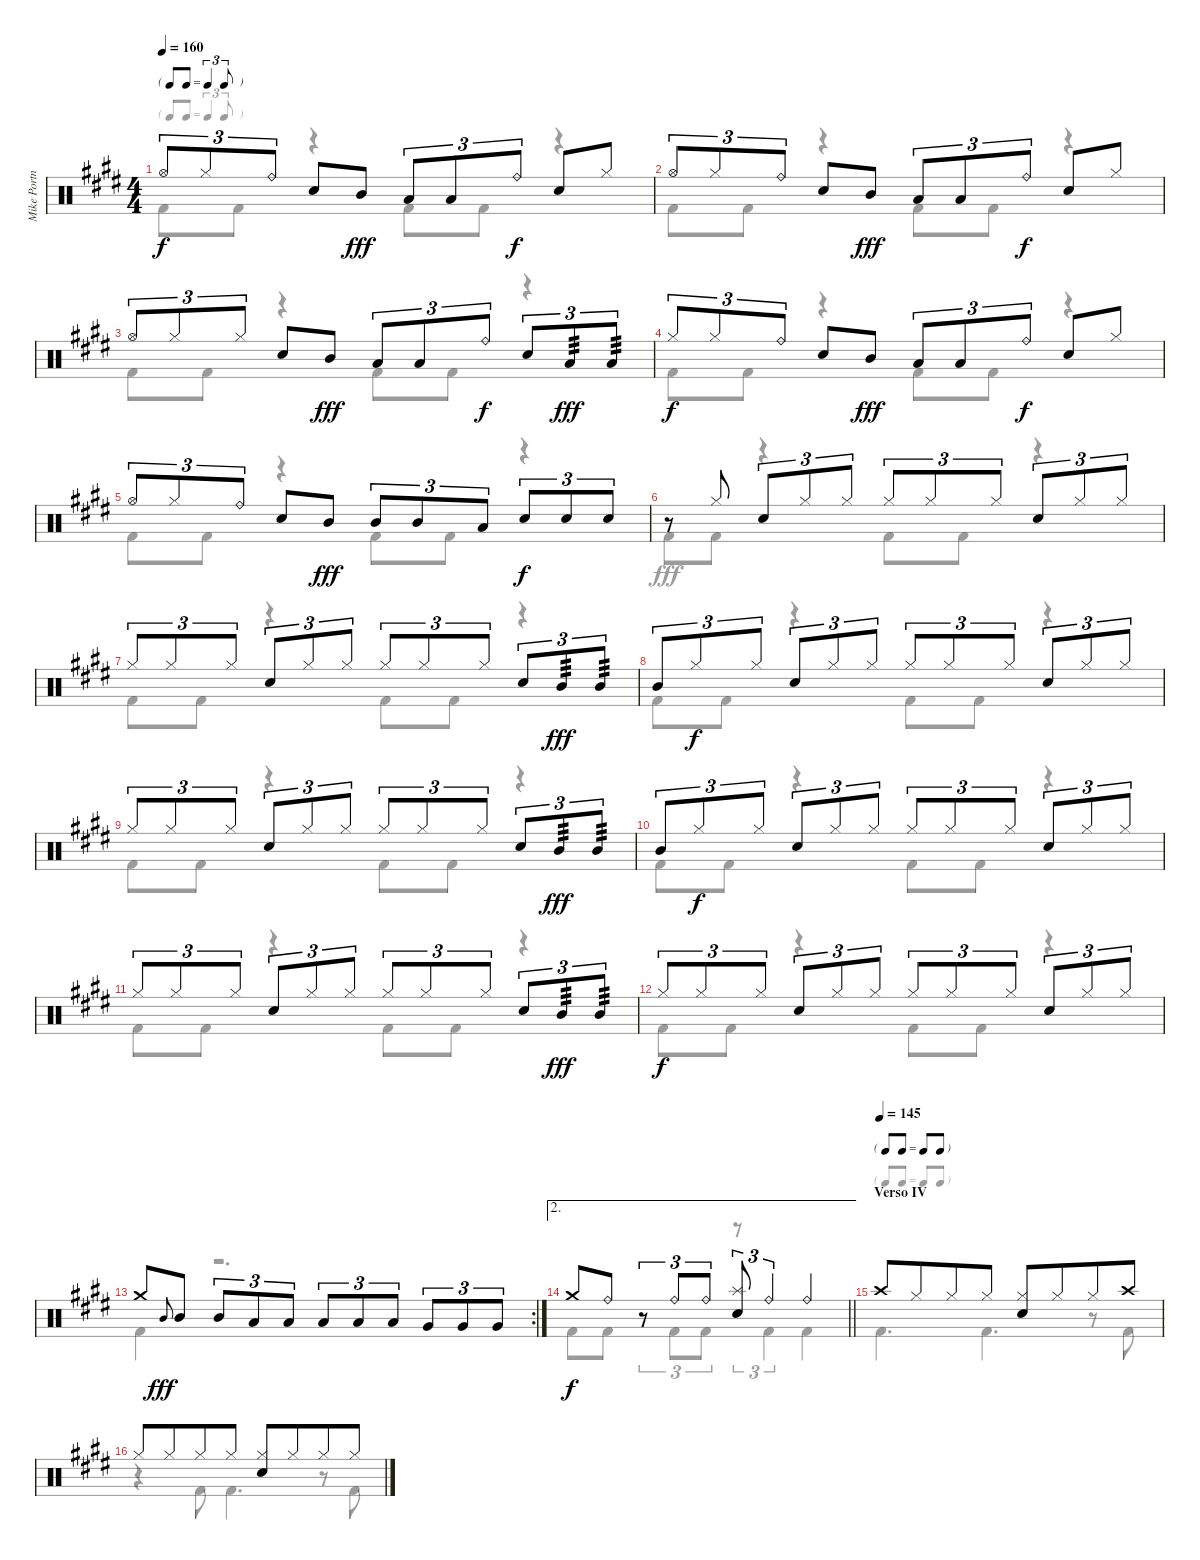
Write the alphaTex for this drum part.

\track ("Mike Portnoy" "Mike Portn") {instrument percussion}
\staff {score}
\articulation defaults
\voice
\ts (4 4)
\tf triplet8th
\tempo 160
\clef neutral
\ks e "Hi-Hat (open)".8{tu (3 2) dy f} "Hi-Hat (closed)".8{tu (3 2)} "Ride (bell)".8{tu (3 2)} "Snare (hit) 2".8 "Mid Tom (hit)".8{dy fff} "Low Tom (hit)".8{tu (3 2)} "Low Tom (hit)".8{tu (3 2)} "Ride (bell)".8{tu (3 2) dy f} "Snare (hit) 2".8 "Hi-Hat (closed)".8
|
"Hi-Hat (open)".8{tu (3 2)} "Hi-Hat (closed)".8{tu (3 2)} "Ride (bell)".8{tu (3 2)} "Snare (hit) 2".8 "Mid Tom (hit)".8{dy fff} "Low Tom (hit)".8{tu (3 2)} "Low Tom (hit)".8{tu (3 2)} "Ride (bell)".8{tu (3 2) dy f} "Snare (hit) 2".8 "Hi-Hat (closed)".8 |
"Hi-Hat (open)".8{tu (3 2)} "Hi-Hat (closed)".8{tu (3 2)} "Hi-Hat (closed)".8{tu (3 2)} "Snare (hit) 2".8 "Mid Tom (hit)".8{dy fff} "Low Tom (hit)".8{tu (3 2)} "Low Tom (hit)".8{tu (3 2)} "Ride (bell)".8{tu (3 2) dy f} "Snare (hit) 2".8{tu (3 2)} "Low Tom (hit)".8{tu (3 2) tp 3 dy fff} "Low Tom (hit)".8{tu (3 2) tp 3} |
"Hi-Hat (closed)".8{tu (3 2) dy f} "Hi-Hat (closed)".8{tu (3 2)} "Ride (bell)".8{tu (3 2)} "Snare (hit) 2".8 "Mid Tom (hit)".8{dy fff} "Low Tom (hit)".8{tu (3 2)} "Low Tom (hit)".8{tu (3 2)} "Ride (bell)".8{tu (3 2) dy f} "Snare (hit) 2".8 "Hi-Hat (closed)".8 |
"Hi-Hat (open)".8{tu (3 2)} "Hi-Hat (closed)".8{tu (3 2)} "Ride (bell)".8{tu (3 2)} "Snare (hit) 2".8 "Mid Tom (hit)".8{dy fff} "Mid Tom (hit)".8{tu (3 2)} "Mid Tom (hit)".8{tu (3 2)} "Low Tom (hit)".8{tu (3 2)} "Snare (hit) 2".8{tu (3 2) dy f} "Snare (hit) 2".8{tu (3 2)} "Snare (hit) 2".8{tu (3 2)} |
r.8 "Hi-Hat (closed)".8 "Snare (hit) 2".8{tu (3 2)} "Hi-Hat (closed)".8{tu (3 2)} "Hi-Hat (closed)".8{tu (3 2)} "Hi-Hat (closed)".8{tu (3 2)} "Hi-Hat (closed)".8{tu (3 2)} "Hi-Hat (closed)".8{tu (3 2)} "Snare (hit) 2".8{tu (3 2)} "Hi-Hat (closed)".8{tu (3 2)} "Hi-Hat (closed)".8{tu (3 2)} |
"Hi-Hat (closed)".8{tu (3 2)} "Hi-Hat (closed)".8{tu (3 2)} "Hi-Hat (closed)".8{tu (3 2)} "Snare (hit) 2".8{tu (3 2)} "Hi-Hat (closed)".8{tu (3 2)} "Hi-Hat (closed)".8{tu (3 2)} "Hi-Hat (closed)".8{tu (3 2)} "Hi-Hat (closed)".8{tu (3 2)} "Hi-Hat (closed)".8{tu (3 2)} "Snare (hit) 2".8{tu (3 2)} "Mid Tom (hit)".8{tu (3 2) tp 3 dy fff} "Mid Tom (hit)".8{tu (3 2) tp 3} |
"Mid Tom (hit)".8{tu (3 2)} "Hi-Hat (closed)".8{tu (3 2) dy f} "Hi-Hat (closed)".8{tu (3 2)} "Snare (hit) 2".8{tu (3 2)} "Hi-Hat (closed)".8{tu (3 2)} "Hi-Hat (closed)".8{tu (3 2)} "Hi-Hat (closed)".8{tu (3 2)} "Hi-Hat (closed)".8{tu (3 2)} "Hi-Hat (closed)".8{tu (3 2)} "Snare (hit) 2".8{tu (3 2)} "Hi-Hat (closed)".8{tu (3 2)} "Hi-Hat (closed)".8{tu (3 2)} |
"Hi-Hat (closed)".8{tu (3 2)} "Hi-Hat (closed)".8{tu (3 2)} "Hi-Hat (closed)".8{tu (3 2)} "Snare (hit) 2".8{tu (3 2)} "Hi-Hat (closed)".8{tu (3 2)} "Hi-Hat (closed)".8{tu (3 2)} "Hi-Hat (closed)".8{tu (3 2)} "Hi-Hat (closed)".8{tu (3 2)} "Hi-Hat (closed)".8{tu (3 2)} "Snare (hit) 2".8{tu (3 2)} "Mid Tom (hit)".8{tu (3 2) tp 3 dy fff} "Mid Tom (hit)".8{tu (3 2) tp 3} |
"Mid Tom (hit)".8{tu (3 2)} "Hi-Hat (closed)".8{tu (3 2) dy f} "Hi-Hat (closed)".8{tu (3 2)} "Snare (hit) 2".8{tu (3 2)} "Hi-Hat (closed)".8{tu (3 2)} "Hi-Hat (closed)".8{tu (3 2)} "Hi-Hat (closed)".8{tu (3 2)} "Hi-Hat (closed)".8{tu (3 2)} "Hi-Hat (closed)".8{tu (3 2)} "Snare (hit) 2".8{tu (3 2)} "Hi-Hat (closed)".8{tu (3 2)} "Hi-Hat (closed)".8{tu (3 2)} |
"Hi-Hat (closed)".8{tu (3 2)} "Hi-Hat (closed)".8{tu (3 2)} "Hi-Hat (closed)".8{tu (3 2)} "Snare (hit) 2".8{tu (3 2)} "Hi-Hat (closed)".8{tu (3 2)} "Hi-Hat (closed)".8{tu (3 2)} "Hi-Hat (closed)".8{tu (3 2)} "Hi-Hat (closed)".8{tu (3 2)} "Hi-Hat (closed)".8{tu (3 2)} "Snare (hit) 2".8{tu (3 2)} "Mid Tom (hit)".8{tu (3 2) tp 3 dy fff} "Mid Tom (hit)".8{tu (3 2) tp 3} |
"Hi-Hat (closed)".8{tu (3 2) dy f} "Hi-Hat (closed)".8{tu (3 2)} "Hi-Hat (closed)".8{tu (3 2)} "Snare (hit) 2".8{tu (3 2)} "Hi-Hat (closed)".8{tu (3 2)} "Hi-Hat (closed)".8{tu (3 2)} "Hi-Hat (closed)".8{tu (3 2)} "Hi-Hat (closed)".8{tu (3 2)} "Hi-Hat (closed)".8{tu (3 2)} "Snare (hit) 2".8{tu (3 2)} "Hi-Hat (closed)".8{tu (3 2)} "Hi-Hat (closed)".8{tu (3 2)} |
\rc 2 "Crash medium (hit)".8 "Mid Tom (hit)".8{gr onbeat dy fff} "Mid Tom (hit)".8{volume 16} "Mid Tom (hit)".8{tu (3 2)} "Low Tom (hit)".8{tu (3 2)} "Low Tom (hit)".8{tu (3 2)} "Low Tom (hit)".8{tu (3 2)} "Low Tom (hit)".8{tu (3 2)} "Low Tom (hit)".8{tu (3 2)} "Very Low Tom (hit)".8{tu (3 2)} "Very Low Tom (hit)".8{tu (3 2)} "Very Low Tom (hit)".8{tu (3 2)}
|
\ae 2
\barLineRight lightlight "Crash medium (hit)".8{dy f volume 13} "Ride (bell)".8
r.8{tu (3 2)} "Ride (bell)".8{tu (3 2)} "Ride (bell)".8{tu (3 2)} ("Splash (hit)" "Snare (hit) 2").8{tu (3 2)} "Ride (bell)".4{tu (3 2)} "Ride (bell)".4 |
\tf none
\section ("" "Verso IV")
\tempo (145)
"Crash high (hit)".8 "Hi-Hat (closed)".8{beam merge} "Hi-Hat (closed)".8 "Hi-Hat (closed)".8 ("Hi-Hat (closed)" "Snare (hit) 2").8 "Hi-Hat (closed)".8{beam merge} "Hi-Hat (closed)".8 "Crash high (hit)".8 |
"Hi-Hat (closed)".8 "Hi-Hat (closed)".8{beam merge} "Hi-Hat (closed)".8 "Hi-Hat (closed)".8 ("Hi-Hat (closed)" "Snare (hit) 2").8 "Hi-Hat (closed)".8{beam merge} "Hi-Hat (closed)".8 "Hi-Hat (closed)".8
\voice
\clef neutral
\ottava regular
\simile none
\ks e "Kick (hit) 2".8{dy f} "Kick (hit) 2".8
r.4 "Kick (hit) 2".8 "Kick (hit) 2".8 r.4 |
"Kick (hit) 2".8 "Kick (hit) 2".8 r.4 "Kick (hit) 2".8 "Kick (hit) 2".8 r.4 |
"Kick (hit) 2".8 "Kick (hit) 2".8 r.4 "Kick (hit) 2".8 "Kick (hit) 2".8 r.4 |
"Kick (hit) 2".8 "Kick (hit) 2".8 r.4 "Kick (hit) 2".8 "Kick (hit) 2".8 r.4 |
"Kick (hit) 2".8 "Kick (hit) 2".8 r.4 "Kick (hit) 2".8 "Kick (hit) 2".8 r.4 |
"Kick (hit) 2".8{dy fff} "Kick (hit) 2".8 r.4 "Kick (hit) 2".8 "Kick (hit) 2".8 r.4 |
"Kick (hit) 2".8 "Kick (hit) 2".8 r.4 "Kick (hit) 2".8 "Kick (hit) 2".8 r.4 |
"Kick (hit) 2".8 "Kick (hit) 2".8 r.4 "Kick (hit) 2".8 "Kick (hit) 2".8 r.4 |
"Kick (hit) 2".8 "Kick (hit) 2".8 r.4 "Kick (hit) 2".8 "Kick (hit) 2".8 r.4 |
"Kick (hit) 2".8 "Kick (hit) 2".8 r.4 "Kick (hit) 2".8 "Kick (hit) 2".8 r.4 |
"Kick (hit) 2".8 "Kick (hit) 2".8 r.4 "Kick (hit) 2".8 "Kick (hit) 2".8 r.4 |
"Kick (hit) 2".8{dy f} "Kick (hit) 2".8 r.4 "Kick (hit) 2".8 "Kick (hit) 2".8 r.4 |
"Kick (hit) 2".4 r.2{d} |
\barLineRight lightlight "Kick (hit) 2".8 "Kick (hit) 2".8
r.8{tu (3 2)} "Kick (hit) 2".8{tu (3 2)} "Kick (hit) 2".8{tu (3 2)} r.8{tu (3 2)} "Kick (hit) 2".4{tu (3 2)} "Kick (hit) 2".4 |
"Kick (hit) 2".4{d} "Kick (hit) 2".4{d} r.8 "Kick (hit) 2".8 |
r.4 "Kick (hit) 2".8 "Kick (hit) 2".4{d} r.8 "Kick (hit) 2".8
